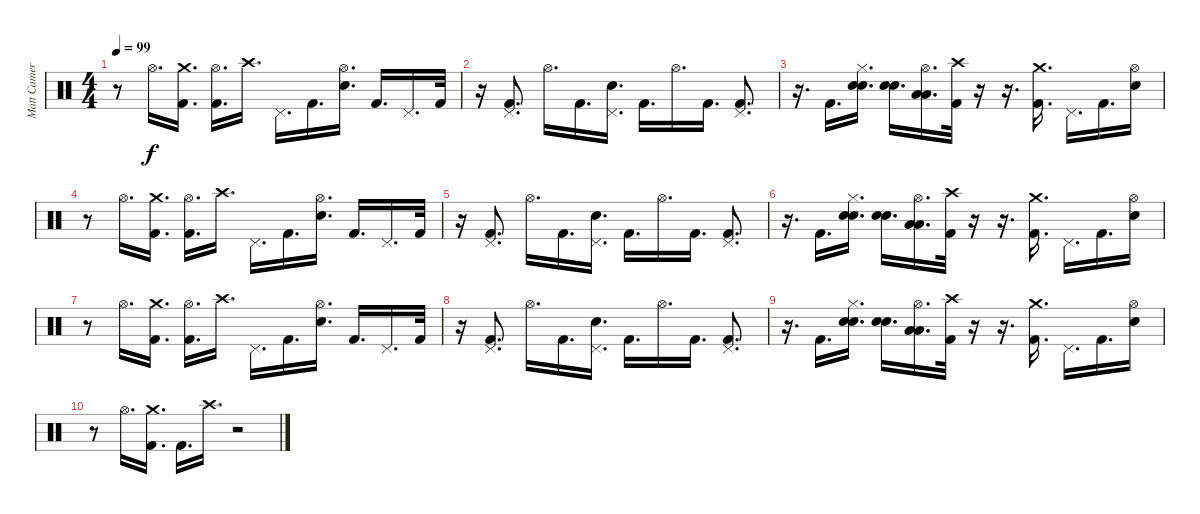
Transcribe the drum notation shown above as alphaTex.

\track ("Matt Cameron" "Matt Camer") {instrument percussion}
\staff {score}
\articulation defaults
\ts (4 4)
\tempo 99
\clef neutral
\ks c
r.8{dy f} "Hi-Hat (open)".16{d} ("Crash medium (hit)" "Kick (hit) 2").16{d} ("Hi-Hat (open)" "Kick (hit) 2").16{d} "Crash high (hit)".16{d} "Pedal Hi-Hat (hit)".16{d} "Kick (hit) 2".16{d} ("Hi-Hat (open)" "Electric Snare (hit)").16{d} "Kick (hit) 2".16{d} "Pedal Hi-Hat (hit)".16{d} "Kick (hit) 2".32 |
r.16 ("Pedal Hi-Hat (hit)" "Kick (hit) 2").8{d} "Hi-Hat (open)".16{d} "Kick (hit) 2".16{d} ("Pedal Hi-Hat (hit)" "Electric Snare (hit)").16{d} "Kick (hit) 2".16{d} "Hi-Hat (open)".16{d} "Kick (hit) 2".16{d} ("Pedal Hi-Hat (hit)" "Kick (hit) 2").8{d} |
r.16{d} "Kick (hit) 2".16{d} ("Hi-Hat (closed)" "Electric Snare (hit)" "Electric Snare (hit)").16{d} ("Electric Snare (hit)" "Electric Snare (hit)").16{d} ("Hi-Hat (open)" "Low Floor Tom (hit)" "Low Floor Tom (hit)").16{d} ("Crash high (hit)" "Kick (hit) 2").32 r.16 r.16{d} ("Crash medium (hit)" "Kick (hit) 2").16{d} "Pedal Hi-Hat (hit)".16{d} "Kick (hit) 2".16{d} ("Hi-Hat (open)" "Electric Snare (hit)").16 |
r.8 "Hi-Hat (open)".16{d} ("Crash medium (hit)" "Kick (hit) 2").16{d} ("Hi-Hat (open)" "Kick (hit) 2").16{d} "Crash high (hit)".16{d} "Pedal Hi-Hat (hit)".16{d} "Kick (hit) 2".16{d} ("Hi-Hat (open)" "Electric Snare (hit)").16{d} "Kick (hit) 2".16{d} "Pedal Hi-Hat (hit)".16{d} "Kick (hit) 2".32 |
r.16 ("Pedal Hi-Hat (hit)" "Kick (hit) 2").8{d} "Hi-Hat (open)".16{d} "Kick (hit) 2".16{d} ("Pedal Hi-Hat (hit)" "Electric Snare (hit)").16{d} "Kick (hit) 2".16{d} "Hi-Hat (open)".16{d} "Kick (hit) 2".16{d} ("Pedal Hi-Hat (hit)" "Kick (hit) 2").8{d} |
r.16{d} "Kick (hit) 2".16{d} ("Hi-Hat (closed)" "Electric Snare (hit)" "Electric Snare (hit)").16{d} ("Electric Snare (hit)" "Electric Snare (hit)").16{d} ("Hi-Hat (open)" "Low Floor Tom (hit)" "Low Floor Tom (hit)").16{d} ("Crash high (hit)" "Kick (hit) 2").32 r.16 r.16{d} ("Crash medium (hit)" "Kick (hit) 2").16{d} "Pedal Hi-Hat (hit)".16{d} "Kick (hit) 2".16{d} ("Hi-Hat (open)" "Electric Snare (hit)").16 |
r.8 "Hi-Hat (open)".16{d} ("Crash medium (hit)" "Kick (hit) 2").16{d} ("Hi-Hat (open)" "Kick (hit) 2").16{d} "Crash high (hit)".16{d} "Pedal Hi-Hat (hit)".16{d} "Kick (hit) 2".16{d} ("Hi-Hat (open)" "Electric Snare (hit)").16{d} "Kick (hit) 2".16{d} "Pedal Hi-Hat (hit)".16{d} "Kick (hit) 2".32 |
r.16 ("Pedal Hi-Hat (hit)" "Kick (hit) 2").8{d} "Hi-Hat (open)".16{d} "Kick (hit) 2".16{d} ("Pedal Hi-Hat (hit)" "Electric Snare (hit)").16{d} "Kick (hit) 2".16{d} "Hi-Hat (open)".16{d} "Kick (hit) 2".16{d} ("Pedal Hi-Hat (hit)" "Kick (hit) 2").8{d} |
r.16{d} "Kick (hit) 2".16{d} ("Hi-Hat (closed)" "Electric Snare (hit)" "Electric Snare (hit)").16{d} ("Electric Snare (hit)" "Electric Snare (hit)").16{d} ("Hi-Hat (open)" "Low Floor Tom (hit)" "Low Floor Tom (hit)").16{d} ("Crash high (hit)" "Kick (hit) 2").32 r.16 r.16{d} ("Crash medium (hit)" "Kick (hit) 2").16{d} "Pedal Hi-Hat (hit)".16{d} "Kick (hit) 2".16{d} ("Hi-Hat (open)" "Electric Snare (hit)").16 |
r.8 "Hi-Hat (open)".16{d} ("Crash medium (hit)" "Kick (hit) 2").16{d} "Kick (hit) 2".16{d} "Crash high (hit)".16{d} r.2
